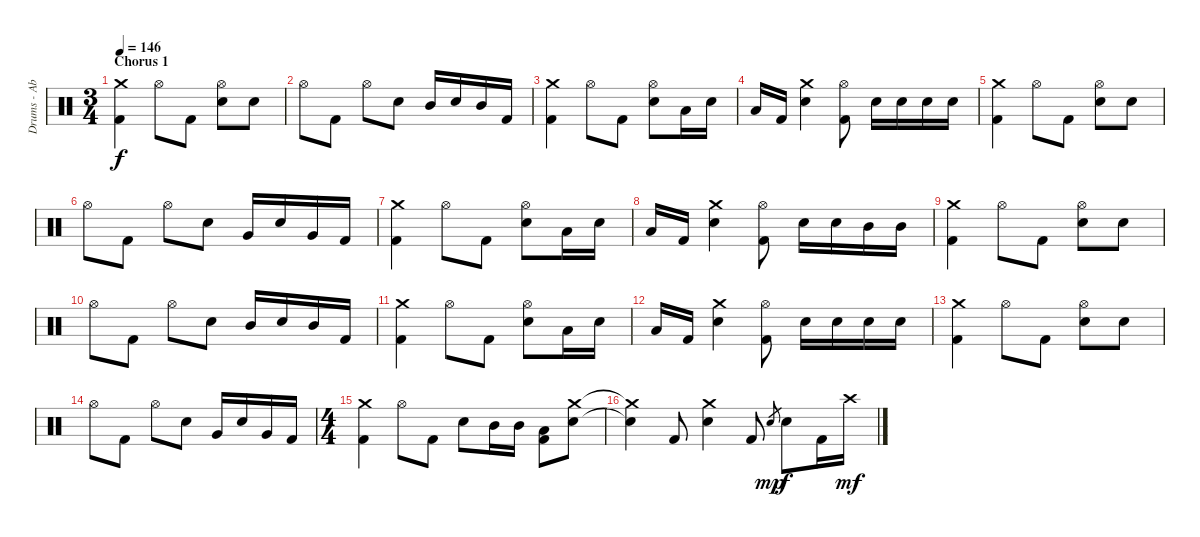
\track ("Drums - Abe Cunningham" "Drums - Ab") {instrument percussion}
\staff {score}
\articulation defaults
\ts (3 4)
\section ("" "Chorus 1")
\tempo 146
\clef neutral
\ks c
("Crash medium (hit)" "Kick (hit) 2").4{dy f} "Hi-Hat (open)".8 "Kick (hit) 2".8 ("Hi-Hat (open)" "Electric Snare (hit)").8 "Electric Snare (hit)".8 |
"Hi-Hat (open)".8 "Kick (hit) 2".8 "Hi-Hat (open)".8 "Electric Snare (hit)".8 "Mid Tom (hit)".16 "Electric Snare (hit)".16 "Mid Tom (hit)".16 "Kick (hit) 2".16 |
("Crash medium (hit)" "Kick (hit) 2").4 "Hi-Hat (open)".8 "Kick (hit) 2".8 ("Hi-Hat (open)" "Electric Snare (hit)").8 "Low Tom (hit)".16 "Electric Snare (hit)".16 |
"Low Tom (hit)".16 "Kick (hit) 2".16 ("Crash medium (hit)" "Electric Snare (hit)").4 ("Hi-Hat (open)" "Kick (hit) 2").8 "Electric Snare (hit)".16 "Electric Snare (hit)".16 "Electric Snare (hit)".16 "Electric Snare (hit)".16 |
("Crash medium (hit)" "Kick (hit) 2").4 "Hi-Hat (open)".8 "Kick (hit) 2".8 ("Hi-Hat (open)" "Electric Snare (hit)").8 "Electric Snare (hit)".8 |
"Hi-Hat (open)".8 "Kick (hit) 2".8 "Hi-Hat (open)".8 "Electric Snare (hit)".8 "Very Low Tom (hit)".16 "Electric Snare (hit)".16 "Very Low Tom (hit)".16 "Kick (hit) 2".16 |
("Crash medium (hit)" "Kick (hit) 2").4 "Hi-Hat (open)".8 "Kick (hit) 2".8 ("Hi-Hat (open)" "Electric Snare (hit)").8 "Low Tom (hit)".16 "Electric Snare (hit)".16 |
"Low Tom (hit)".16 "Kick (hit) 2".16 ("Crash medium (hit)" "Electric Snare (hit)").4 ("Hi-Hat (open)" "Kick (hit) 2").8 "Electric Snare (hit)".16 "Electric Snare (hit)".16 "Mid Tom (hit)".16 "Mid Tom (hit)".16 |
("Crash medium (hit)" "Kick (hit) 2").4 "Hi-Hat (open)".8 "Kick (hit) 2".8 ("Hi-Hat (open)" "Electric Snare (hit)").8 "Electric Snare (hit)".8 |
"Hi-Hat (open)".8 "Kick (hit) 2".8 "Hi-Hat (open)".8 "Electric Snare (hit)".8 "Mid Tom (hit)".16 "Electric Snare (hit)".16 "Mid Tom (hit)".16 "Kick (hit) 2".16 |
("Crash medium (hit)" "Kick (hit) 2").4 "Hi-Hat (open)".8 "Kick (hit) 2".8 ("Hi-Hat (open)" "Electric Snare (hit)").8 "Low Tom (hit)".16 "Electric Snare (hit)".16 |
"Low Tom (hit)".16 "Kick (hit) 2".16 ("Crash medium (hit)" "Electric Snare (hit)").4 ("Hi-Hat (open)" "Kick (hit) 2").8 "Electric Snare (hit)".16 "Electric Snare (hit)".16 "Electric Snare (hit)".16 "Electric Snare (hit)".16 |
("Crash medium (hit)" "Kick (hit) 2").4 "Hi-Hat (open)".8 "Kick (hit) 2".8 ("Hi-Hat (open)" "Electric Snare (hit)").8 "Electric Snare (hit)".8 |
"Hi-Hat (open)".8 "Kick (hit) 2".8 "Hi-Hat (open)".8 "Electric Snare (hit)".8 "Very Low Tom (hit)".16 "Electric Snare (hit)".16 "Very Low Tom (hit)".16 "Kick (hit) 2".16 |
\ts (4 4)
("Crash medium (hit)" "Kick (hit) 2").4 "Hi-Hat (open)".8 "Kick (hit) 2".8 "Electric Snare (hit)".8 "Mid Tom (hit)".16 "Mid Tom (hit)".16 ("Low Tom (hit)" "Kick (hit) 2").8 ("Crash medium (hit)" "Electric Snare (hit)").8 |
("Crash medium (hit)"{t} "Electric Snare (hit)"{t}).4 "Kick (hit) 2".8 ("Crash medium (hit)" "Electric Snare (hit)").4 "Kick (hit) 2".8 "Electric Snare (hit)".8{gr dy mp} "Electric Snare (hit)".8{dy f} "Kick (hit) 2".16 "Crash high (hit)".16{dy mf}
